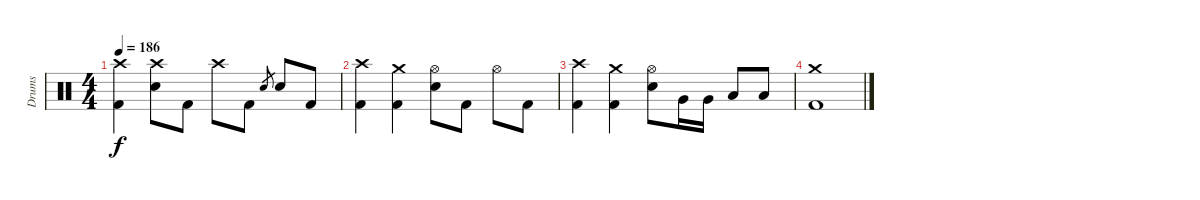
\track ("Drums" "Drums") {instrument percussion}
\staff {score}
\articulation defaults
\ts (4 4)
\tempo 186
\clef neutral
\ks c
("Crash high (hit)" "Kick (hit) 2").4{dy f} ("Crash high (hit)" "Electric Snare (hit)").8 "Kick (hit) 2".8 "Crash high (hit)".8 "Kick (hit) 2".8 "Electric Snare (hit)".8{gr} "Electric Snare (hit)".8 "Kick (hit) 2".8 |
("Crash high (hit)" "Kick (hit) 2").4 ("Crash medium (hit)" "Kick (hit) 2").4 ("Hi-Hat (open)" "Electric Snare (hit)").8 "Kick (hit) 2".8 "Hi-Hat (open)".8 "Kick (hit) 2".8 |
("Crash high (hit)" "Kick (hit) 2").4 ("Crash medium (hit)" "Kick (hit) 2").4 ("Hi-Hat (open)" "Electric Snare (hit)").8 "Very Low Tom (hit)".16 "Very Low Tom (hit)".16 "Low Floor Tom (hit)".8 "Low Floor Tom (hit)".8 |
("Crash medium (hit)" "Kick (hit) 2").1
